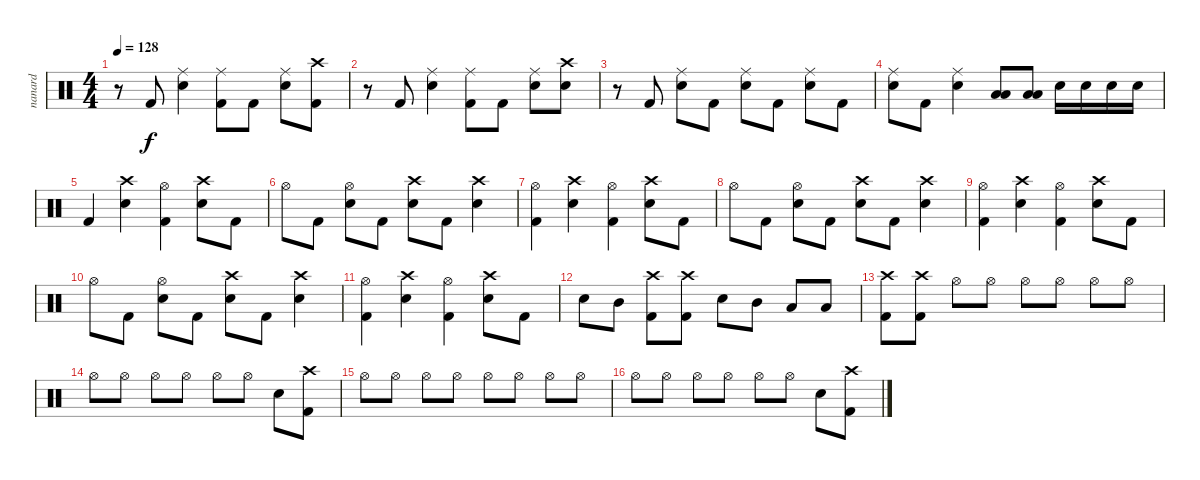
\track ("nanard" "nanard") {instrument percussion}
\staff {score}
\articulation defaults
\ts (4 4)
\tempo 128
\clef neutral
\ks c
r.8{dy f} "Kick (hit) 2".8 ("Ride (middle)" "Electric Snare (hit)").4 ("Ride (middle)" "Kick (hit) 2").8 "Kick (hit) 2".8 ("Ride (middle)" "Electric Snare (hit)").8 ("Crash high (hit)" "Kick (hit) 2").8 |
r.8 "Kick (hit) 2".8 ("Ride (middle)" "Electric Snare (hit)").4 ("Ride (middle)" "Kick (hit) 2").8 "Kick (hit) 2".8 ("Ride (middle)" "Electric Snare (hit)").8 ("Crash high (hit)" "Electric Snare (hit)").8 |
r.8 "Kick (hit) 2".8 ("Ride (middle)" "Electric Snare (hit)").8 "Kick (hit) 2".8 ("Ride (middle)" "Electric Snare (hit)").8 "Kick (hit) 2".8 ("Ride (middle)" "Electric Snare (hit)").8 "Kick (hit) 2".8 |
("Ride (middle)" "Electric Snare (hit)").8 "Kick (hit) 2".8 ("Ride (middle)" "Electric Snare (hit)").4 ("Low Tom (hit)" "Low Floor Tom (hit)").8 ("Low Tom (hit)" "Low Floor Tom (hit)").8 "Electric Snare (hit)".16 "Electric Snare (hit)".16 "Electric Snare (hit)".16 "Electric Snare (hit)".16 |
"Kick (hit) 2".4 ("Crash high (hit)" "Electric Snare (hit)").4 ("Hi-Hat (open)" "Kick (hit) 2").4 ("Crash high (hit)" "Electric Snare (hit)").8 "Kick (hit) 2".8 |
"Hi-Hat (open)".8 "Kick (hit) 2".8 ("Hi-Hat (open)" "Electric Snare (hit)").8 "Kick (hit) 2".8 ("Crash high (hit)" "Electric Snare (hit)").8 "Kick (hit) 2".8 ("Crash high (hit)" "Electric Snare (hit)").4 |
("Hi-Hat (open)" "Kick (hit) 2").4 ("Crash high (hit)" "Electric Snare (hit)").4 ("Hi-Hat (open)" "Kick (hit) 2").4 ("Crash high (hit)" "Electric Snare (hit)").8 "Kick (hit) 2".8 |
"Hi-Hat (open)".8 "Kick (hit) 2".8 ("Hi-Hat (open)" "Electric Snare (hit)").8 "Kick (hit) 2".8 ("Crash high (hit)" "Electric Snare (hit)").8 "Kick (hit) 2".8 ("Crash high (hit)" "Electric Snare (hit)").4 |
("Hi-Hat (open)" "Kick (hit) 2").4 ("Crash high (hit)" "Electric Snare (hit)").4 ("Hi-Hat (open)" "Kick (hit) 2").4 ("Crash high (hit)" "Electric Snare (hit)").8 "Kick (hit) 2".8 |
"Hi-Hat (open)".8 "Kick (hit) 2".8 ("Hi-Hat (open)" "Electric Snare (hit)").8 "Kick (hit) 2".8 ("Crash high (hit)" "Electric Snare (hit)").8 "Kick (hit) 2".8 ("Crash high (hit)" "Electric Snare (hit)").4 |
("Hi-Hat (open)" "Kick (hit) 2").4 ("Crash high (hit)" "Electric Snare (hit)").4 ("Hi-Hat (open)" "Kick (hit) 2").4 ("Crash high (hit)" "Electric Snare (hit)").8 "Kick (hit) 2".8 |
"Electric Snare (hit)".8 "Mid Tom (hit)".8 ("Crash high (hit)" "Kick (hit) 2").8 ("Crash high (hit)" "Kick (hit) 2").8 "Electric Snare (hit)".8 "Mid Tom (hit)".8 "Low Tom (hit)".8 "Low Floor Tom (hit)".8 |
("Crash high (hit)" "Kick (hit) 2").8 ("Crash high (hit)" "Kick (hit) 2").8 "Hi-Hat (open)".8 "Hi-Hat (open)".8 "Hi-Hat (open)".8 "Hi-Hat (open)".8 "Hi-Hat (open)".8 "Hi-Hat (open)".8 |
"Hi-Hat (open)".8 "Hi-Hat (open)".8 "Hi-Hat (open)".8 "Hi-Hat (open)".8 "Hi-Hat (open)".8 "Hi-Hat (open)".8 "Electric Snare (hit)".8 ("Crash high (hit)" "Kick (hit) 2").8 |
"Hi-Hat (open)".8 "Hi-Hat (open)".8 "Hi-Hat (open)".8 "Hi-Hat (open)".8 "Hi-Hat (open)".8 "Hi-Hat (open)".8 "Hi-Hat (open)".8 "Hi-Hat (open)".8 |
"Hi-Hat (open)".8 "Hi-Hat (open)".8 "Hi-Hat (open)".8 "Hi-Hat (open)".8 "Hi-Hat (open)".8 "Hi-Hat (open)".8 "Electric Snare (hit)".8 ("Crash high (hit)" "Kick (hit) 2").8
